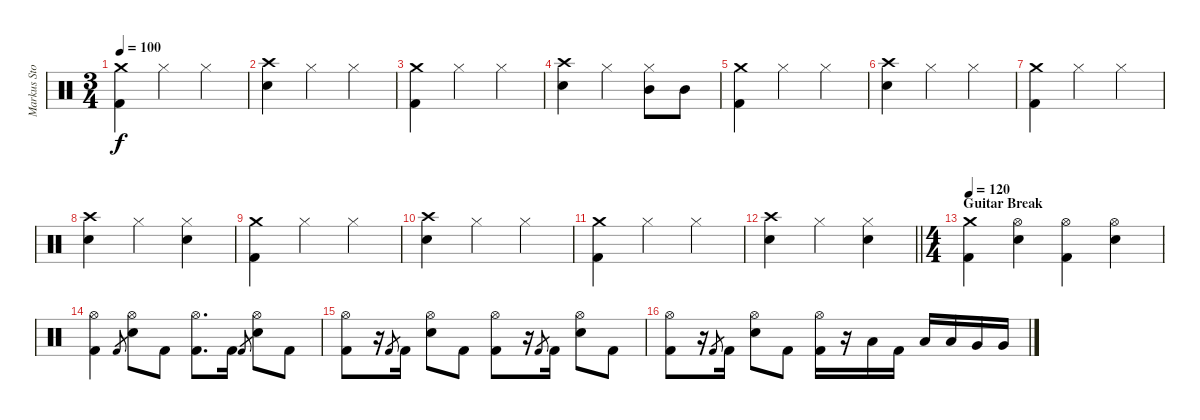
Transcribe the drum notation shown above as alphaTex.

\track ("Markus Stock" "Markus Sto") {instrument percussion}
\staff {score}
\articulation defaults
\ts (3 4)
\tempo 100
\clef neutral
\ks c
("Crash medium (hit)" "Kick (hit) 2").4{dy f} "Hi-Hat (closed)".4 "Hi-Hat (closed)".4 |
("Crash high (hit)" "Snare (hit) 2").4 "Hi-Hat (closed)".4 "Hi-Hat (closed)".4 |
("Crash medium (hit)" "Kick (hit) 2").4 "Hi-Hat (closed)".4 "Hi-Hat (closed)".4 |
("Crash high (hit)" "Snare (hit) 2").4 "Hi-Hat (closed)".4 ("Hi-Hat (closed)" "Mid Tom (hit)").8 "Mid Tom (hit)".8 |
("Crash medium (hit)" "Kick (hit) 2").4 "Hi-Hat (closed)".4 "Hi-Hat (closed)".4 |
("Crash high (hit)" "Snare (hit) 2").4 "Hi-Hat (closed)".4 "Hi-Hat (closed)".4 |
("Crash medium (hit)" "Kick (hit) 2").4 "Hi-Hat (closed)".4 "Hi-Hat (closed)".4 |
("Crash high (hit)" "Snare (hit) 2").4 "Hi-Hat (closed)".4 ("Hi-Hat (closed)" "Snare (hit) 2").4 |
("Crash medium (hit)" "Kick (hit) 2").4 "Hi-Hat (closed)".4 "Hi-Hat (closed)".4 |
("Crash high (hit)" "Snare (hit) 2").4 "Hi-Hat (closed)".4 "Hi-Hat (closed)".4 |
("Crash medium (hit)" "Kick (hit) 2").4 "Hi-Hat (closed)".4 "Hi-Hat (closed)".4 |
\barLineRight lightlight
("Crash high (hit)" "Snare (hit) 2").4 "Hi-Hat (closed)".4 ("Hi-Hat (closed)" "Snare (hit) 2").4 |
\ts (4 4)
\section ("" "Guitar Break")
\tempo 120
("Crash medium (hit)" "Kick (hit) 2").4 ("Hi-Hat (open)" "Snare (hit) 2").4 ("Hi-Hat (open)" "Kick (hit) 2").4 ("Hi-Hat (open)" "Snare (hit) 2").4 |
("Hi-Hat (open)" "Kick (hit) 2").4 "Kick (hit) 2".8{gr} ("Hi-Hat (open)" "Snare (hit) 2").8 "Kick (hit) 2".8 ("Hi-Hat (open)" "Kick (hit) 2").8{d} "Kick (hit) 2".16 "Kick (hit) 2".8{gr} ("Hi-Hat (open)" "Snare (hit) 2").8 "Kick (hit) 2".8 |
("Hi-Hat (open)" "Kick (hit) 2").8 r.16 "Kick (hit) 2".8{gr} "Kick (hit) 2".16 ("Hi-Hat (open)" "Snare (hit) 2").8 "Kick (hit) 2".8 ("Hi-Hat (open)" "Kick (hit) 2").8 r.16 "Kick (hit) 2".8{gr} "Kick (hit) 2".16 ("Hi-Hat (open)" "Snare (hit) 2").8 "Kick (hit) 2".8 |
("Hi-Hat (open)" "Kick (hit) 2").8 r.16 "Kick (hit) 2".8{gr} "Kick (hit) 2".16 ("Hi-Hat (open)" "Snare (hit) 2").8 "Kick (hit) 2".8 ("Hi-Hat (open)" "Kick (hit) 2").16 r.16 "Low Tom (hit)".16 "Kick (hit) 2".16 "Low Tom (hit)".16 "Low Tom (hit)".16 "Very Low Tom (hit)".16 "Very Low Tom (hit)".16
